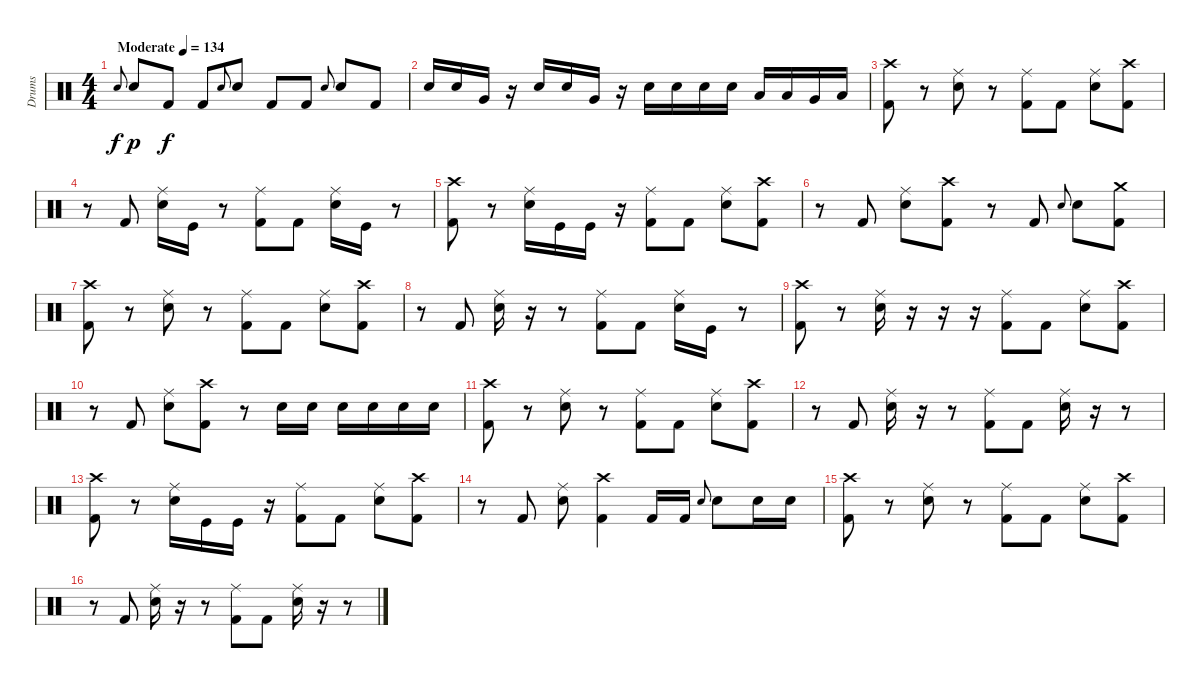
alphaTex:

\track ("Drums" "Drums") {instrument percussion}
\staff {score}
\articulation defaults
\ts (4 4)
\tempo (134 "Moderate")
\clef neutral
\ks c "Snare (hit) 2".8{gr onbeat dy f} "Snare (hit) 2".8{dy p} "Kick (hit) 2".8{dy f} "Kick (hit) 2".8 "Snare (hit) 2".8{gr onbeat} "Snare (hit) 2".8 "Kick (hit) 2".8 "Kick (hit) 2".8 "Snare (hit) 2".8{gr onbeat} "Snare (hit) 2".8 "Kick (hit) 2".8
|
"Snare (hit) 2".16 "Snare (hit) 2".16 "Very Low Tom (hit)".16 r.16 "Snare (hit) 2".16 "Snare (hit) 2".16 "Very Low Tom (hit)".16 r.16 "Snare (hit) 2".16 "Snare (hit) 2".16 "Snare (hit) 2".16 "Snare (hit) 2".16 "Low Tom (hit)".16 "Low Tom (hit)".16 "Very Low Tom (hit)".16 "Low Floor Tom (hit)".16 |
("Crash high (hit)" "Kick (hit) 2").8 r.8 ("Ride (middle)" "Snare (hit) 2").8 r.8 ("Ride (middle)" "Kick (hit) 2").8 "Kick (hit) 2".8 ("Ride (middle)" "Snare (hit) 2").8 ("Crash high (hit)" "Kick (hit) 2").8 |
r.8 "Kick (hit) 2".8 ("Ride (middle)" "Snare (hit) 2").16 "Kick (hit)".16 r.8 ("Ride (middle)" "Kick (hit) 2").8 "Kick (hit) 2".8 ("Ride (middle)" "Snare (hit) 2").16 "Kick (hit)".16 r.8 |
("Crash high (hit)" "Kick (hit) 2").8 r.8 ("Ride (middle)" "Snare (hit) 2").16 "Kick (hit)".16 "Kick (hit)".16 r.16 ("Ride (middle)" "Kick (hit) 2").8 "Kick (hit) 2".8 ("Ride (middle)" "Snare (hit) 2").8 ("Crash high (hit)" "Kick (hit) 2").8 |
r.8 "Kick (hit) 2".8 ("Ride (middle)" "Snare (hit) 2").8 ("Crash high (hit)" "Kick (hit) 2").8 r.8 "Kick (hit) 2".8 "Snare (hit) 2".8{gr onbeat} "Snare (hit) 2".8 ("Crash medium (hit)" "Kick (hit) 2").8 |
("Crash high (hit)" "Kick (hit) 2").8 r.8 ("Ride (middle)" "Snare (hit) 2").8 r.8 ("Ride (middle)" "Kick (hit) 2").8 "Kick (hit) 2".8 ("Ride (middle)" "Snare (hit) 2").8 ("Crash high (hit)" "Kick (hit) 2").8 |
r.8 "Kick (hit) 2".8 ("Ride (middle)" "Snare (hit) 2").16 r.16 r.8 ("Ride (middle)" "Kick (hit) 2").8 "Kick (hit) 2".8 ("Ride (middle)" "Snare (hit) 2").16 "Kick (hit)".16 r.8 |
("Crash high (hit)" "Kick (hit) 2").8 r.8 ("Ride (middle)" "Snare (hit) 2").16 r.16 r.16 r.16 ("Ride (middle)" "Kick (hit) 2").8 "Kick (hit) 2".8 ("Ride (middle)" "Snare (hit) 2").8 ("Crash high (hit)" "Kick (hit) 2").8 |
r.8 "Kick (hit) 2".8 ("Ride (middle)" "Snare (hit) 2").8 ("Crash high (hit)" "Kick (hit) 2").8 r.8 "Snare (hit) 2".16 "Snare (hit) 2".16 "Snare (hit) 2".16 "Snare (hit) 2".16 "Snare (hit) 2".16 "Snare (hit) 2".16 |
("Crash high (hit)" "Kick (hit) 2").8 r.8 ("Ride (middle)" "Snare (hit) 2").8 r.8 ("Ride (middle)" "Kick (hit) 2").8 "Kick (hit) 2".8 ("Ride (middle)" "Snare (hit) 2").8 ("Crash high (hit)" "Kick (hit) 2").8 |
r.8 "Kick (hit) 2".8 ("Ride (middle)" "Snare (hit) 2").16 r.16 r.8 ("Ride (middle)" "Kick (hit) 2").8 "Kick (hit) 2".8 ("Ride (middle)" "Snare (hit) 2").16 r.16 r.8 |
("Crash high (hit)" "Kick (hit) 2").8 r.8 ("Ride (middle)" "Snare (hit) 2").16 "Kick (hit)".16 "Kick (hit)".16 r.16 ("Ride (middle)" "Kick (hit) 2").8 "Kick (hit) 2".8 ("Ride (middle)" "Snare (hit) 2").8 ("Crash high (hit)" "Kick (hit) 2").8 |
r.8 "Kick (hit) 2".8 ("Ride (middle)" "Snare (hit) 2").8 ("Crash high (hit)" "Kick (hit) 2").4 "Kick (hit) 2".16 "Kick (hit) 2".16 "Snare (hit) 2".8{gr onbeat} "Snare (hit) 2".8 "Snare (hit) 2".16 "Snare (hit) 2".16 |
("Crash high (hit)" "Kick (hit) 2").8 r.8 ("Ride (middle)" "Snare (hit) 2").8 r.8 ("Ride (middle)" "Kick (hit) 2").8 "Kick (hit) 2".8 ("Ride (middle)" "Snare (hit) 2").8 ("Crash high (hit)" "Kick (hit) 2").8 |
r.8 "Kick (hit) 2".8 ("Ride (middle)" "Snare (hit) 2").16 r.16 r.8 ("Ride (middle)" "Kick (hit) 2").8 "Kick (hit) 2".8 ("Ride (middle)" "Snare (hit) 2").16 r.16 r.8
